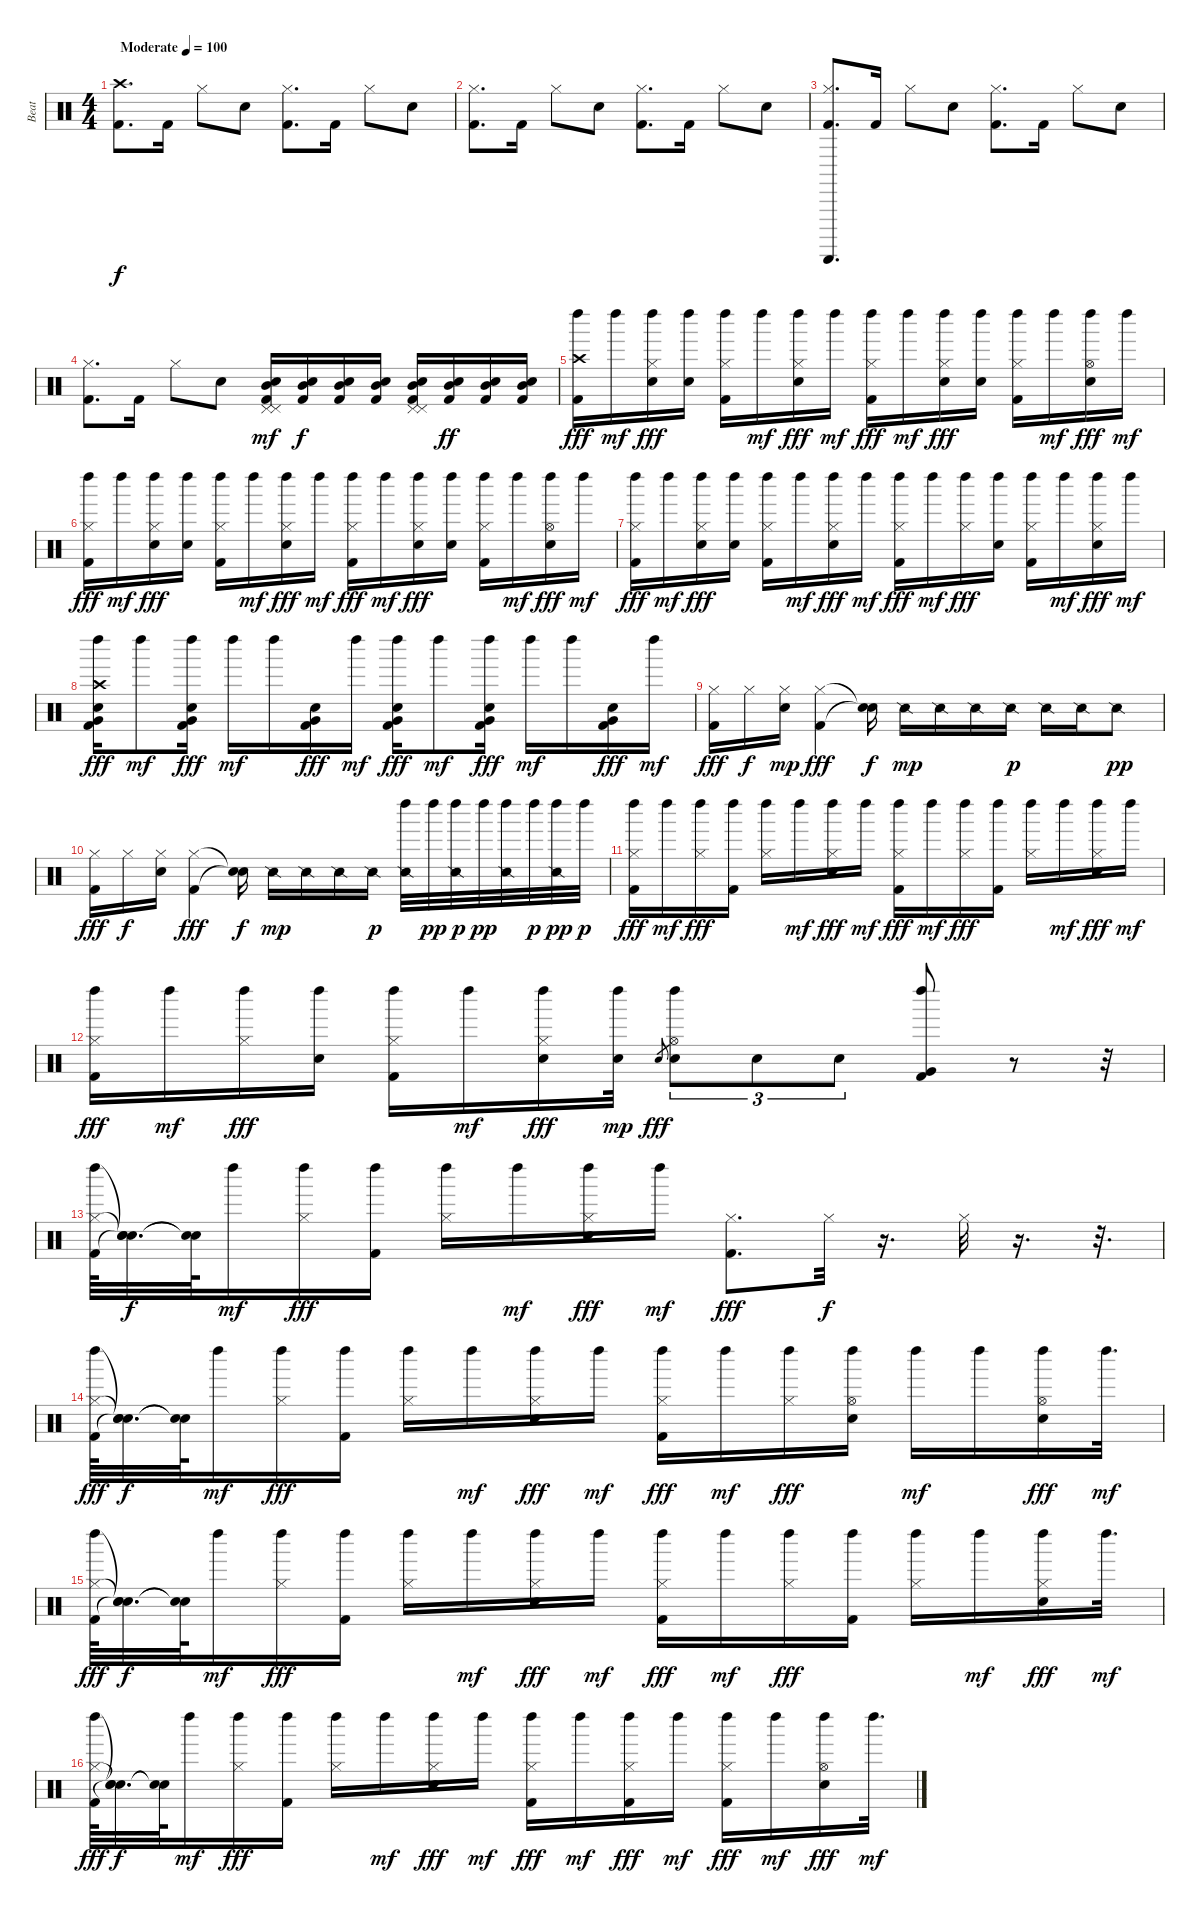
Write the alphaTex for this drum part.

\track ("Beat" "Beat") {instrument percussion}
\staff {score}
\articulation defaults
\ts (4 4)
\tempo (100 "Moderate")
\clef neutral
\ks c
("Crash high (hit)" "Kick (hit) 2").8{d dy f} "Kick (hit) 2".16 "Hi-Hat (closed)".8 "Electric Snare (hit)".8 ("Hi-Hat (closed)" "Kick (hit) 2").8{d} "Kick (hit) 2".16 "Hi-Hat (closed)".8 "Electric Snare (hit)".8 |
("Hi-Hat (closed)" "Kick (hit) 2").8{d} "Kick (hit) 2".16 "Hi-Hat (closed)".8 "Electric Snare (hit)".8 ("Hi-Hat (closed)" "Kick (hit) 2").8{d} "Kick (hit) 2".16 "Hi-Hat (closed)".8 "Electric Snare (hit)".8 |
("Hi-Hat (closed)" "Kick (hit) 2" "Guiro (scrap-return)").8{d} "Kick (hit) 2".16 "Hi-Hat (closed)".8 "Electric Snare (hit)".8 ("Hi-Hat (closed)" "Kick (hit) 2").8{d} "Kick (hit) 2".16 "Hi-Hat (closed)".8 "Electric Snare (hit)".8 |
("Hi-Hat (closed)" "Kick (hit) 2").8{d} "Kick (hit) 2".16 "Hi-Hat (closed)".8 "Electric Snare (hit)".8 ("Pedal Hi-Hat (hit)" "Mid Tom (hit)" "Electric Snare (hit)" "Pedal Hi-Hat (hit)" "Kick (hit) 2").16{dy mf} ("Mid Tom (hit)" "Electric Snare (hit)" "Kick (hit) 2").16{dy f} ("Mid Tom (hit)" "Electric Snare (hit)" "Kick (hit) 2").16 ("Mid Tom (hit)" "Electric Snare (hit)" "Kick (hit) 2").16 ("Pedal Hi-Hat (hit)" "Mid Tom (hit)" "Electric Snare (hit)" "Kick (hit) 2" "Pedal Hi-Hat (hit)").16 ("Mid Tom (hit)" "Electric Snare (hit)" "Kick (hit) 2").16{dy ff} ("Mid Tom (hit)" "Kick (hit) 2" "Electric Snare (hit)").16 ("Mid Tom (hit)" "Electric Snare (hit)" "Kick (hit) 2").16 |
("Left Maraca (hit)" "Crash high (hit)" "Kick (hit) 2").16{dy fff} "Left Maraca (hit)".16{dy mf} ("Electric Snare (hit)" "Left Maraca (hit)" "Hi-Hat (closed)").16{dy fff} ("Left Maraca (hit)" "Electric Snare (hit)").16 ("Left Maraca (hit)" "Kick (hit) 2" "Hi-Hat (closed)").16 "Left Maraca (hit)".16{dy mf} ("Left Maraca (hit)" "Hi-Hat (closed)" "Electric Snare (hit)").16{dy fff} "Left Maraca (hit)".16{dy mf} ("Left Maraca (hit)" "Hi-Hat (closed)" "Kick (hit) 2").16{dy fff} "Left Maraca (hit)".16{dy mf} ("Electric Snare (hit)" "Left Maraca (hit)" "Hi-Hat (closed)").16{dy fff} ("Left Maraca (hit)" "Electric Snare (hit)").16 ("Left Maraca (hit)" "Kick (hit) 2" "Hi-Hat (closed)").16 "Left Maraca (hit)".16{dy mf} ("Left Maraca (hit)" "Hi-Hat (open)" "Electric Snare (hit)").16{dy fff} "Left Maraca (hit)".16{dy mf} |
("Left Maraca (hit)" "Hi-Hat (closed)" "Kick (hit) 2").16{dy fff} "Left Maraca (hit)".16{dy mf} ("Electric Snare (hit)" "Left Maraca (hit)" "Hi-Hat (closed)").16{dy fff} ("Left Maraca (hit)" "Electric Snare (hit)").16 ("Left Maraca (hit)" "Kick (hit) 2" "Hi-Hat (closed)").16 "Left Maraca (hit)".16{dy mf} ("Left Maraca (hit)" "Hi-Hat (closed)" "Electric Snare (hit)").16{dy fff} "Left Maraca (hit)".16{dy mf} ("Left Maraca (hit)" "Hi-Hat (closed)" "Kick (hit) 2").16{dy fff} "Left Maraca (hit)".16{dy mf} ("Electric Snare (hit)" "Left Maraca (hit)" "Hi-Hat (closed)").16{dy fff} ("Left Maraca (hit)" "Electric Snare (hit)").16 ("Left Maraca (hit)" "Kick (hit) 2" "Hi-Hat (closed)").16 "Left Maraca (hit)".16{dy mf} ("Left Maraca (hit)" "Hi-Hat (open)" "Electric Snare (hit)").16{dy fff} "Left Maraca (hit)".16{dy mf} |
("Left Maraca (hit)" "Hi-Hat (closed)" "Kick (hit) 2").16{dy fff} "Left Maraca (hit)".16{dy mf} ("Electric Snare (hit)" "Left Maraca (hit)" "Hi-Hat (closed)").16{dy fff} ("Left Maraca (hit)" "Electric Snare (hit)").16 ("Left Maraca (hit)" "Kick (hit) 2" "Hi-Hat (closed)").16 "Left Maraca (hit)".16{dy mf} ("Left Maraca (hit)" "Hi-Hat (closed)" "Electric Snare (hit)").16{dy fff} "Left Maraca (hit)".16{dy mf} ("Left Maraca (hit)" "Hi-Hat (closed)" "Kick (hit) 2").16{dy fff} "Left Maraca (hit)".16{dy mf} ("Left Maraca (hit)" "Hi-Hat (closed)").16{dy fff} ("Left Maraca (hit)" "Electric Snare (hit)").16 ("Left Maraca (hit)" "Kick (hit) 2" "Hi-Hat (closed)").16 "Left Maraca (hit)".16{dy mf} ("Left Maraca (hit)" "Hi-Hat (closed)" "Electric Snare (hit)").16{dy fff} "Left Maraca (hit)".16{dy mf} |
("Left Maraca (hit)" "Very Low Tom (hit)" "Electric Snare (hit)" "Crash high (hit)" "Kick (hit) 2").16{dy fff} "Left Maraca (hit)".8{dy mf} ("Left Maraca (hit)" "Very Low Tom (hit)" "Kick (hit) 2" "Electric Snare (hit)").16{dy fff} "Left Maraca (hit)".16{dy mf} "Left Maraca (hit)".16 ("Very Low Tom (hit)" "Kick (hit) 2" "Electric Snare (hit)").16{dy fff} "Left Maraca (hit)".16{dy mf} ("Left Maraca (hit)" "Very Low Tom (hit)" "Electric Snare (hit)" "Kick (hit) 2").16{dy fff} "Left Maraca (hit)".8{dy mf} ("Left Maraca (hit)" "Very Low Tom (hit)" "Kick (hit) 2" "Electric Snare (hit)").16{dy fff} "Left Maraca (hit)".16{dy mf} "Left Maraca (hit)".16 ("Very Low Tom (hit)" "Electric Snare (hit)" "Kick (hit) 2").16{dy fff} "Left Maraca (hit)".16{dy mf} |
("Hi-Hat (closed)" "Kick (hit) 2").16{dy fff} "Hi-Hat (closed)".16{dy f} ("Hi-Hat (closed)" "Hand Clap (hit)").16{dy mp} ("Hi-Hat (closed)" "Kick (hit) 2").4{dy fff} ("Snare (hit)"{t} "Snare (hit)"{t}).16{dy f} "Snare (side stick) 2".16{dy mp} "Snare (side stick) 2".16 "Snare (side stick) 2".16 "Snare (side stick) 2".16{dy p} "Snare (side stick) 2".16 "Snare (side stick) 2".16 "Snare (side stick) 2".8{dy pp} |
("Hi-Hat (closed)" "Kick (hit) 2").16{dy fff} "Hi-Hat (closed)".16{dy f} ("Hi-Hat (closed)" "Hand Clap (hit)").16 ("Hi-Hat (closed)" "Kick (hit) 2").4{dy fff} ("Snare (hit)"{t} "Snare (hit)"{t}).16{dy f} "Snare (side stick) 2".16{dy mp} "Snare (side stick) 2".16 "Snare (side stick) 2".16 "Snare (side stick) 2".16{dy p} ("Left Maraca (hit)" "Snare (side stick) 2").32 "Left Maraca (hit)".32{dy pp} ("Left Maraca (hit)" "Snare (side stick) 2").32{dy p} "Left Maraca (hit)".32{dy pp} ("Left Maraca (hit)" "Snare (side stick) 2").32 "Left Maraca (hit)".32{dy p} ("Left Maraca (hit)" "Snare (side stick) 2").32{dy pp} "Left Maraca (hit)".32{dy p} |
("Left Maraca (hit)" "Hi-Hat (closed)" "Kick (hit) 2").16{dy fff} "Left Maraca (hit)".16{dy mf} ("Left Maraca (hit)" "Hi-Hat (closed)").16{dy fff} ("Left Maraca (hit)" "Kick (hit) 2").16 ("Left Maraca (hit)" "Hi-Hat (closed)").16 "Left Maraca (hit)".16{dy mf} ("Left Maraca (hit)" "Hi-Hat (closed)" "Electric Snare (hit)").16{dy fff} "Left Maraca (hit)".16{dy mf} ("Left Maraca (hit)" "Hi-Hat (closed)" "Kick (hit) 2").16{dy fff} "Left Maraca (hit)".16{dy mf} ("Left Maraca (hit)" "Hi-Hat (closed)").16{dy fff} ("Left Maraca (hit)" "Kick (hit) 2").16 ("Left Maraca (hit)" "Hi-Hat (closed)").16 "Left Maraca (hit)".16{dy mf} ("Left Maraca (hit)" "Hi-Hat (closed)" "Electric Snare (hit)").16{dy fff} "Left Maraca (hit)".16{dy mf} |
("Left Maraca (hit)" "Hi-Hat (closed)" "Kick (hit) 2").16{dy fff} "Left Maraca (hit)".16{dy mf} ("Left Maraca (hit)" "Hi-Hat (closed)").16{dy fff} ("Left Maraca (hit)" "Electric Snare (hit)").16 ("Left Maraca (hit)" "Kick (hit) 2" "Hi-Hat (closed)").16 "Left Maraca (hit)".16{dy mf} ("Left Maraca (hit)" "Hi-Hat (closed)" "Electric Snare (hit)").16{dy fff} ("Left Maraca (hit)" "Electric Snare (hit)").32{dy mp} "Electric Snare (hit)".8{gr dy fff} ("Electric Snare (hit)" "Left Maraca (hit)" "Hi-Hat (open)").8{tu (3 2)} "Electric Snare (hit)".8{tu (3 2)} "Electric Snare (hit)".8{tu (3 2)} ("Left Maraca (hit)" "Kick (hit) 2" "Very Low Tom (hit)").8 r.8 r.32 |
("Left Maraca (hit)" "Hi-Hat (closed)" "Kick (hit) 2").64 ("Snare (hit)"{t} "Snare (hit)"{t} "Snare (hit)"{t}).32{d dy f} ("Snare (hit)"{t} "Snare (hit)"{t}).64 "Left Maraca (hit)".16{dy mf} ("Left Maraca (hit)" "Hi-Hat (closed)").16{dy fff} ("Left Maraca (hit)" "Kick (hit) 2").16 ("Left Maraca (hit)" "Hi-Hat (closed)").16 "Left Maraca (hit)".16{dy mf} ("Left Maraca (hit)" "Hi-Hat (closed)" "Electric Snare (hit)").16{dy fff} "Left Maraca (hit)".16{dy mf} ("Hi-Hat (closed)" "Kick (hit) 2").8{d dy fff} "Hi-Hat (closed)".32{dy f} r.16{d} "Hi-Hat (closed)".32 r.16{d} r.32{d} |
("Left Maraca (hit)" "Hi-Hat (closed)" "Kick (hit) 2").64{dy fff} ("Snare (hit)"{t} "Snare (hit)"{t} "Snare (hit)"{t}).32{d dy f} ("Snare (hit)"{t} "Snare (hit)"{t}).64 "Left Maraca (hit)".16{dy mf} ("Left Maraca (hit)" "Hi-Hat (closed)").16{dy fff} ("Left Maraca (hit)" "Kick (hit) 2").16 ("Left Maraca (hit)" "Hi-Hat (closed)").16 "Left Maraca (hit)".16{dy mf} ("Left Maraca (hit)" "Hi-Hat (closed)" "Electric Snare (hit)").16{dy fff} "Left Maraca (hit)".16{dy mf} ("Left Maraca (hit)" "Hi-Hat (closed)" "Kick (hit) 2").16{dy fff} "Left Maraca (hit)".16{dy mf} ("Left Maraca (hit)" "Hi-Hat (closed)").16{dy fff} ("Hi-Hat (open)" "Left Maraca (hit)" "Electric Snare (hit)").16 "Left Maraca (hit)".16{dy mf} "Left Maraca (hit)".16 ("Left Maraca (hit)" "Hi-Hat (open)" "Electric Snare (hit)").16{dy fff} "Left Maraca (hit)".32{d dy mf} |
("Left Maraca (hit)" "Hi-Hat (closed)" "Kick (hit) 2").64{dy fff} ("Snare (hit)"{t} "Snare (hit)"{t} "Snare (hit)"{t}).32{d dy f} ("Snare (hit)"{t} "Snare (hit)"{t}).64 "Left Maraca (hit)".16{dy mf} ("Left Maraca (hit)" "Hi-Hat (closed)").16{dy fff} ("Left Maraca (hit)" "Kick (hit) 2").16 ("Left Maraca (hit)" "Hi-Hat (closed)").16 "Left Maraca (hit)".16{dy mf} ("Left Maraca (hit)" "Hi-Hat (closed)" "Electric Snare (hit)").16{dy fff} "Left Maraca (hit)".16{dy mf} ("Left Maraca (hit)" "Hi-Hat (closed)" "Kick (hit) 2").16{dy fff} "Left Maraca (hit)".16{dy mf} ("Left Maraca (hit)" "Hi-Hat (closed)").16{dy fff} ("Left Maraca (hit)" "Kick (hit) 2").16 ("Left Maraca (hit)" "Hi-Hat (closed)").16 "Left Maraca (hit)".16{dy mf} ("Left Maraca (hit)" "Hi-Hat (closed)" "Electric Snare (hit)").16{dy fff} "Left Maraca (hit)".32{d dy mf} |
("Left Maraca (hit)" "Hi-Hat (closed)" "Kick (hit) 2").64{dy fff} ("Snare (hit)"{t} "Snare (hit)"{t} "Snare (hit)"{t}).32{d dy f} ("Snare (hit)"{t} "Snare (hit)"{t}).64 "Left Maraca (hit)".16{dy mf} ("Left Maraca (hit)" "Hi-Hat (closed)").16{dy fff} ("Left Maraca (hit)" "Kick (hit) 2").16 ("Left Maraca (hit)" "Hi-Hat (closed)").16 "Left Maraca (hit)".16{dy mf} ("Left Maraca (hit)" "Hi-Hat (closed)" "Electric Snare (hit)").16{dy fff} "Left Maraca (hit)".16{dy mf} ("Left Maraca (hit)" "Hi-Hat (closed)" "Kick (hit) 2").16{dy fff} "Left Maraca (hit)".16{dy mf} ("Kick (hit) 2" "Left Maraca (hit)" "Hi-Hat (closed)").16{dy fff} "Left Maraca (hit)".16{dy mf} ("Left Maraca (hit)" "Kick (hit) 2" "Hi-Hat (closed)").16{dy fff} "Left Maraca (hit)".16{dy mf} ("Left Maraca (hit)" "Hi-Hat (open)" "Electric Snare (hit)").16{dy fff} "Left Maraca (hit)".32{d dy mf}
